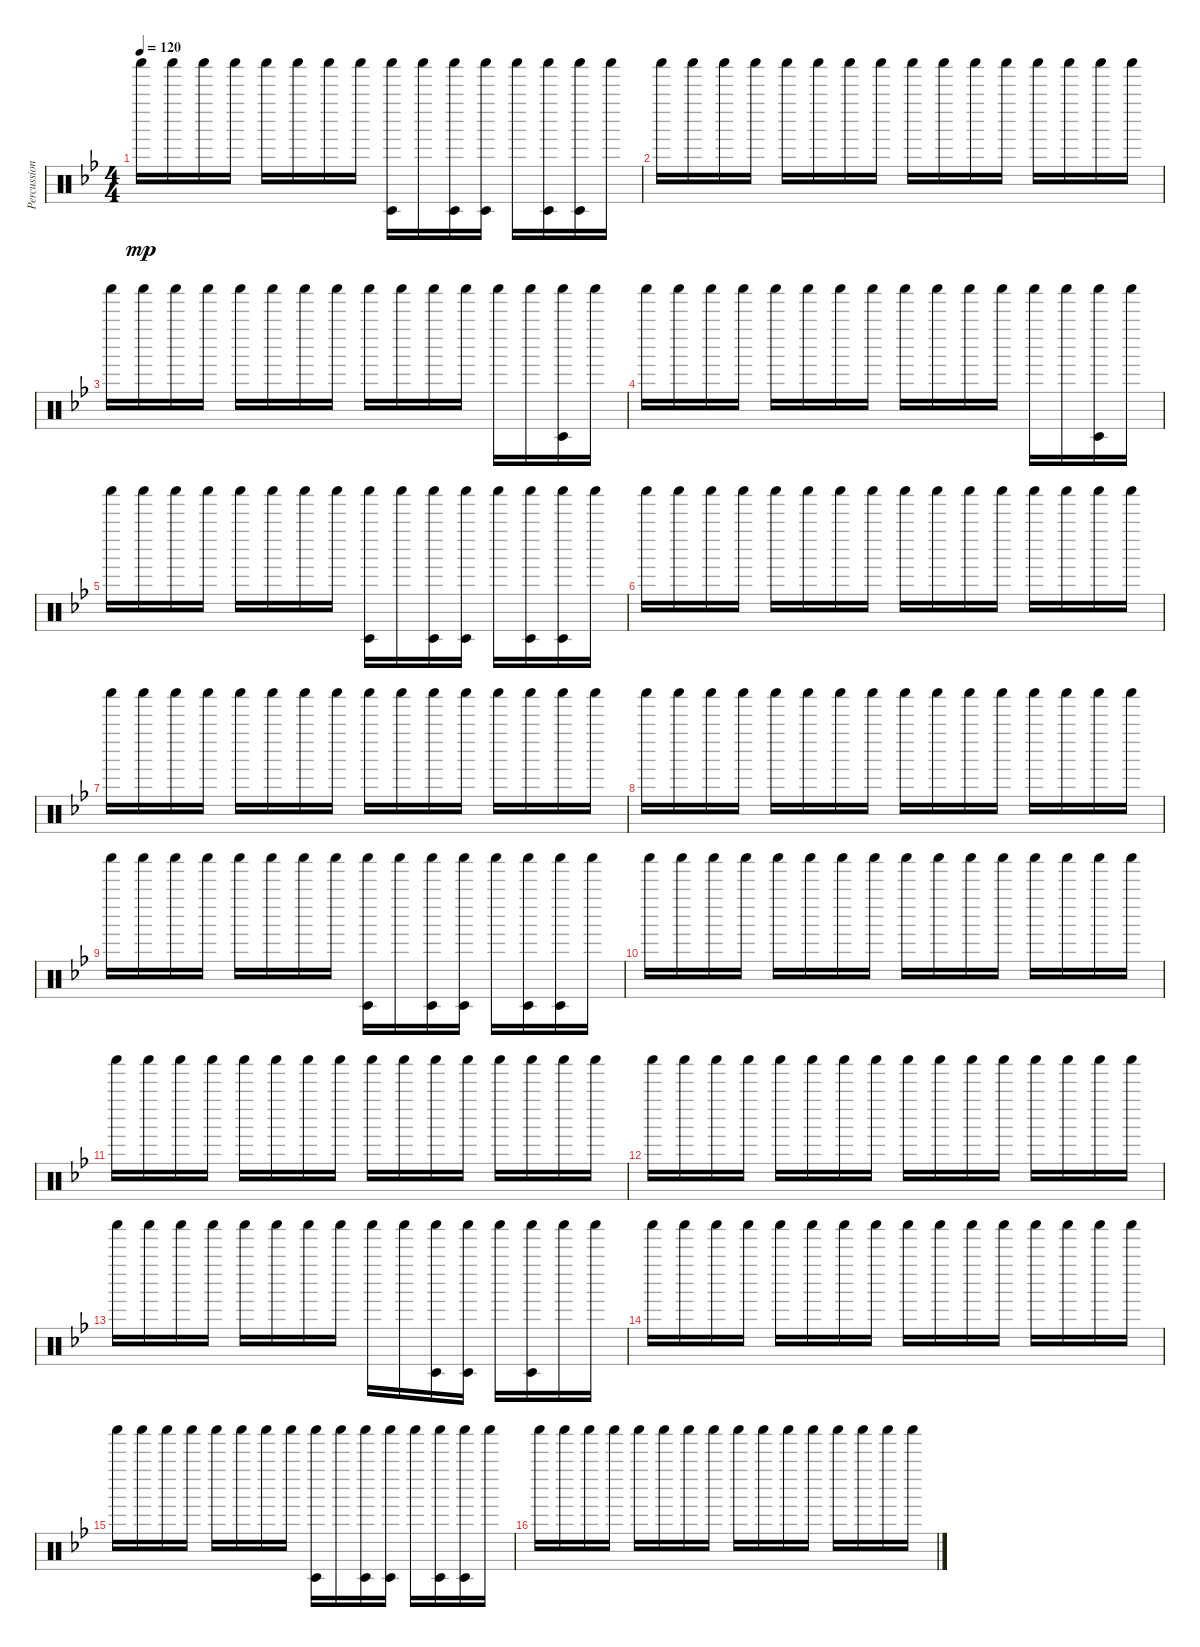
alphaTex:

\track ("Percussion" "Percussion") {instrument percussion}
\staff {score}
\articulation defaults
\ts (4 4)
\tempo 120
\clef neutral
\ks bb "Shaker (hit)".16{dy mp} "Shaker (hit)".16 "Shaker (hit)".16 "Shaker (hit)".16 "Shaker (hit)".16 "Shaker (hit)".16 "Shaker (hit)".16 "Shaker (hit)".16
("Shaker (hit)" "Timbale low (hit)").16 "Shaker (hit)".16 ("Shaker (hit)" "Timbale low (hit)").16 ("Shaker (hit)" "Timbale low (hit)").16 "Shaker (hit)".16 ("Shaker (hit)" "Timbale low (hit)").16 ("Shaker (hit)" "Timbale low (hit)").16 "Shaker (hit)".16 |
"Shaker (hit)".16 "Shaker (hit)".16 "Shaker (hit)".16 "Shaker (hit)".16 "Shaker (hit)".16 "Shaker (hit)".16 "Shaker (hit)".16 "Shaker (hit)".16 "Shaker (hit)".16 "Shaker (hit)".16 "Shaker (hit)".16 "Shaker (hit)".16 "Shaker (hit)".16 "Shaker (hit)".16 "Shaker (hit)".16 "Shaker (hit)".16 |
"Shaker (hit)".16 "Shaker (hit)".16 "Shaker (hit)".16 "Shaker (hit)".16 "Shaker (hit)".16 "Shaker (hit)".16 "Shaker (hit)".16 "Shaker (hit)".16 "Shaker (hit)".16 "Shaker (hit)".16 "Shaker (hit)".16 "Shaker (hit)".16 "Shaker (hit)".16 "Shaker (hit)".16 ("Shaker (hit)" "Timbale low (hit)").16 "Shaker (hit)".16 |
"Shaker (hit)".16 "Shaker (hit)".16 "Shaker (hit)".16 "Shaker (hit)".16 "Shaker (hit)".16 "Shaker (hit)".16 "Shaker (hit)".16 "Shaker (hit)".16 "Shaker (hit)".16 "Shaker (hit)".16 "Shaker (hit)".16 "Shaker (hit)".16 "Shaker (hit)".16 "Shaker (hit)".16 ("Shaker (hit)" "Timbale low (hit)").16 "Shaker (hit)".16 |
"Shaker (hit)".16 "Shaker (hit)".16 "Shaker (hit)".16 "Shaker (hit)".16 "Shaker (hit)".16 "Shaker (hit)".16 "Shaker (hit)".16 "Shaker (hit)".16 ("Shaker (hit)" "Timbale low (hit)").16 "Shaker (hit)".16 ("Shaker (hit)" "Timbale low (hit)").16 ("Shaker (hit)" "Timbale low (hit)").16 "Shaker (hit)".16 ("Shaker (hit)" "Timbale low (hit)").16 ("Shaker (hit)" "Timbale low (hit)").16 "Shaker (hit)".16 |
"Shaker (hit)".16 "Shaker (hit)".16 "Shaker (hit)".16 "Shaker (hit)".16 "Shaker (hit)".16 "Shaker (hit)".16 "Shaker (hit)".16 "Shaker (hit)".16 "Shaker (hit)".16 "Shaker (hit)".16 "Shaker (hit)".16 "Shaker (hit)".16 "Shaker (hit)".16 "Shaker (hit)".16 "Shaker (hit)".16 "Shaker (hit)".16 |
"Shaker (hit)".16 "Shaker (hit)".16 "Shaker (hit)".16 "Shaker (hit)".16 "Shaker (hit)".16 "Shaker (hit)".16 "Shaker (hit)".16 "Shaker (hit)".16 "Shaker (hit)".16 "Shaker (hit)".16 "Shaker (hit)".16 "Shaker (hit)".16 "Shaker (hit)".16 "Shaker (hit)".16 "Shaker (hit)".16 "Shaker (hit)".16 |
"Shaker (hit)".16 "Shaker (hit)".16 "Shaker (hit)".16 "Shaker (hit)".16 "Shaker (hit)".16 "Shaker (hit)".16 "Shaker (hit)".16 "Shaker (hit)".16 "Shaker (hit)".16 "Shaker (hit)".16 "Shaker (hit)".16 "Shaker (hit)".16 "Shaker (hit)".16 "Shaker (hit)".16 "Shaker (hit)".16 "Shaker (hit)".16 |
"Shaker (hit)".16 "Shaker (hit)".16 "Shaker (hit)".16 "Shaker (hit)".16 "Shaker (hit)".16 "Shaker (hit)".16 "Shaker (hit)".16 "Shaker (hit)".16 ("Shaker (hit)" "Timbale low (hit)").16 "Shaker (hit)".16 ("Shaker (hit)" "Timbale low (hit)").16 ("Shaker (hit)" "Timbale low (hit)").16 "Shaker (hit)".16 ("Shaker (hit)" "Timbale low (hit)").16 ("Shaker (hit)" "Timbale low (hit)").16 "Shaker (hit)".16 |
"Shaker (hit)".16 "Shaker (hit)".16 "Shaker (hit)".16 "Shaker (hit)".16 "Shaker (hit)".16 "Shaker (hit)".16 "Shaker (hit)".16 "Shaker (hit)".16 "Shaker (hit)".16 "Shaker (hit)".16 "Shaker (hit)".16 "Shaker (hit)".16 "Shaker (hit)".16 "Shaker (hit)".16 "Shaker (hit)".16 "Shaker (hit)".16 |
"Shaker (hit)".16 "Shaker (hit)".16 "Shaker (hit)".16 "Shaker (hit)".16 "Shaker (hit)".16 "Shaker (hit)".16 "Shaker (hit)".16 "Shaker (hit)".16 "Shaker (hit)".16 "Shaker (hit)".16 "Shaker (hit)".16 "Shaker (hit)".16 "Shaker (hit)".16 "Shaker (hit)".16 "Shaker (hit)".16 "Shaker (hit)".16 |
"Shaker (hit)".16 "Shaker (hit)".16 "Shaker (hit)".16 "Shaker (hit)".16 "Shaker (hit)".16 "Shaker (hit)".16 "Shaker (hit)".16 "Shaker (hit)".16 "Shaker (hit)".16 "Shaker (hit)".16 "Shaker (hit)".16 "Shaker (hit)".16 "Shaker (hit)".16 "Shaker (hit)".16 "Shaker (hit)".16 "Shaker (hit)".16 |
"Shaker (hit)".16 "Shaker (hit)".16 "Shaker (hit)".16 "Shaker (hit)".16 "Shaker (hit)".16 "Shaker (hit)".16 "Shaker (hit)".16 "Shaker (hit)".16 "Shaker (hit)".16 "Shaker (hit)".16 ("Shaker (hit)" "Timbale low (hit)").16 ("Shaker (hit)" "Timbale low (hit)").16 "Shaker (hit)".16 ("Shaker (hit)" "Timbale low (hit)").16 "Shaker (hit)".16 "Shaker (hit)".16 |
"Shaker (hit)".16 "Shaker (hit)".16 "Shaker (hit)".16 "Shaker (hit)".16 "Shaker (hit)".16 "Shaker (hit)".16 "Shaker (hit)".16 "Shaker (hit)".16 "Shaker (hit)".16 "Shaker (hit)".16 "Shaker (hit)".16 "Shaker (hit)".16 "Shaker (hit)".16 "Shaker (hit)".16 "Shaker (hit)".16 "Shaker (hit)".16 |
"Shaker (hit)".16 "Shaker (hit)".16 "Shaker (hit)".16 "Shaker (hit)".16 "Shaker (hit)".16 "Shaker (hit)".16 "Shaker (hit)".16 "Shaker (hit)".16 ("Shaker (hit)" "Timbale low (hit)").16 "Shaker (hit)".16 ("Shaker (hit)" "Timbale low (hit)").16 ("Shaker (hit)" "Timbale low (hit)").16 "Shaker (hit)".16 ("Shaker (hit)" "Timbale low (hit)").16 ("Shaker (hit)" "Timbale low (hit)").16 "Shaker (hit)".16 |
"Shaker (hit)".16 "Shaker (hit)".16 "Shaker (hit)".16 "Shaker (hit)".16 "Shaker (hit)".16 "Shaker (hit)".16 "Shaker (hit)".16 "Shaker (hit)".16 "Shaker (hit)".16 "Shaker (hit)".16 "Shaker (hit)".16 "Shaker (hit)".16 "Shaker (hit)".16 "Shaker (hit)".16 "Shaker (hit)".16 "Shaker (hit)".16
